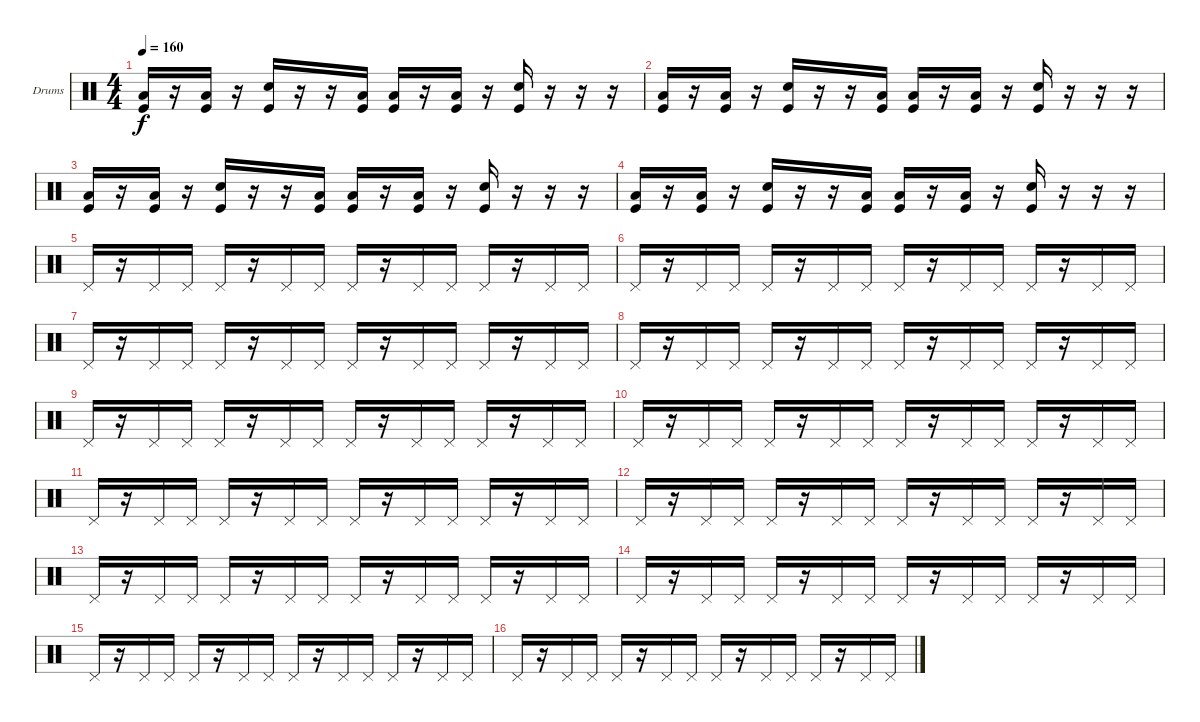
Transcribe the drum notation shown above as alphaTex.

\defaultSystemsLayout 4
\bracketExtendMode groupsimilarinstruments
\firstSystemTrackNameOrientation horizontal
\otherSystemsTrackNameOrientation horizontal
\track ("Drumkit" "Drums") {solo instrument percussion}
\staff {score}
\articulation defaults
\ts (4 4)
\tempo 160
\clef neutral
\scale
0.333333
\ks c
("Low Tom (hit)" "Kick (hit)").16{dy f} r.16 ("Low Tom (hit)" "Kick (hit)").16 r.16 ("Snare (hit) 2" "Kick (hit)").16 r.16 r.16 ("Low Tom (hit)" "Kick (hit)").16 ("Low Tom (hit)" "Kick (hit)").16 r.16 ("Low Tom (hit)" "Kick (hit)").16 r.16 ("Snare (hit) 2" "Kick (hit)").16 r.16 r.16 r.16 |
\scale
0.333333 ("Low Tom (hit)" "Kick (hit)").16 r.16 ("Low Tom (hit)" "Kick (hit)").16 r.16 ("Snare (hit) 2" "Kick (hit)").16 r.16 r.16 ("Low Tom (hit)" "Kick (hit)").16 ("Low Tom (hit)" "Kick (hit)").16 r.16 ("Low Tom (hit)" "Kick (hit)").16 r.16 ("Snare (hit) 2" "Kick (hit)").16 r.16 r.16 r.16 |
\scale
0.333333 ("Low Tom (hit)" "Kick (hit)").16 r.16 ("Low Tom (hit)" "Kick (hit)").16 r.16 ("Snare (hit) 2" "Kick (hit)").16 r.16 r.16 ("Low Tom (hit)" "Kick (hit)").16 ("Low Tom (hit)" "Kick (hit)").16 r.16 ("Low Tom (hit)" "Kick (hit)").16 r.16 ("Snare (hit) 2" "Kick (hit)").16 r.16 r.16 r.16 |
\scale
0.333333 ("Low Tom (hit)" "Kick (hit)").16 r.16 ("Low Tom (hit)" "Kick (hit)").16 r.16 ("Snare (hit) 2" "Kick (hit)").16 r.16 r.16 ("Low Tom (hit)" "Kick (hit)").16 ("Low Tom (hit)" "Kick (hit)").16 r.16 ("Low Tom (hit)" "Kick (hit)").16 r.16 ("Snare (hit) 2" "Kick (hit)").16 r.16 r.16 r.16 |
\scale
0.333333 "Pedal Hi-Hat (hit)".16 r.16 "Pedal Hi-Hat (hit)".16 "Pedal Hi-Hat (hit)".16 "Pedal Hi-Hat (hit)".16 r.16 "Pedal Hi-Hat (hit)".16 "Pedal Hi-Hat (hit)".16 "Pedal Hi-Hat (hit)".16 r.16 "Pedal Hi-Hat (hit)".16 "Pedal Hi-Hat (hit)".16 "Pedal Hi-Hat (hit)".16 r.16 "Pedal Hi-Hat (hit)".16 "Pedal Hi-Hat (hit)".16 |
\scale
0.333333 "Pedal Hi-Hat (hit)".16 r.16 "Pedal Hi-Hat (hit)".16 "Pedal Hi-Hat (hit)".16 "Pedal Hi-Hat (hit)".16 r.16 "Pedal Hi-Hat (hit)".16 "Pedal Hi-Hat (hit)".16 "Pedal Hi-Hat (hit)".16 r.16 "Pedal Hi-Hat (hit)".16 "Pedal Hi-Hat (hit)".16 "Pedal Hi-Hat (hit)".16 r.16 "Pedal Hi-Hat (hit)".16 "Pedal Hi-Hat (hit)".16 |
\scale
0.333333 "Pedal Hi-Hat (hit)".16 r.16 "Pedal Hi-Hat (hit)".16 "Pedal Hi-Hat (hit)".16 "Pedal Hi-Hat (hit)".16 r.16 "Pedal Hi-Hat (hit)".16 "Pedal Hi-Hat (hit)".16 "Pedal Hi-Hat (hit)".16 r.16 "Pedal Hi-Hat (hit)".16 "Pedal Hi-Hat (hit)".16 "Pedal Hi-Hat (hit)".16 r.16 "Pedal Hi-Hat (hit)".16 "Pedal Hi-Hat (hit)".16 |
\scale
0.333333 "Pedal Hi-Hat (hit)".16 r.16 "Pedal Hi-Hat (hit)".16 "Pedal Hi-Hat (hit)".16 "Pedal Hi-Hat (hit)".16 r.16 "Pedal Hi-Hat (hit)".16 "Pedal Hi-Hat (hit)".16 "Pedal Hi-Hat (hit)".16 r.16 "Pedal Hi-Hat (hit)".16 "Pedal Hi-Hat (hit)".16 "Pedal Hi-Hat (hit)".16 r.16 "Pedal Hi-Hat (hit)".16 "Pedal Hi-Hat (hit)".16 |
"Pedal Hi-Hat (hit)".16 r.16 "Pedal Hi-Hat (hit)".16 "Pedal Hi-Hat (hit)".16 "Pedal Hi-Hat (hit)".16 r.16 "Pedal Hi-Hat (hit)".16 "Pedal Hi-Hat (hit)".16 "Pedal Hi-Hat (hit)".16 r.16 "Pedal Hi-Hat (hit)".16 "Pedal Hi-Hat (hit)".16 "Pedal Hi-Hat (hit)".16 r.16 "Pedal Hi-Hat (hit)".16 "Pedal Hi-Hat (hit)".16 |
"Pedal Hi-Hat (hit)".16 r.16 "Pedal Hi-Hat (hit)".16 "Pedal Hi-Hat (hit)".16 "Pedal Hi-Hat (hit)".16 r.16 "Pedal Hi-Hat (hit)".16 "Pedal Hi-Hat (hit)".16 "Pedal Hi-Hat (hit)".16 r.16 "Pedal Hi-Hat (hit)".16 "Pedal Hi-Hat (hit)".16 "Pedal Hi-Hat (hit)".16 r.16 "Pedal Hi-Hat (hit)".16 "Pedal Hi-Hat (hit)".16 |
"Pedal Hi-Hat (hit)".16 r.16 "Pedal Hi-Hat (hit)".16 "Pedal Hi-Hat (hit)".16 "Pedal Hi-Hat (hit)".16 r.16 "Pedal Hi-Hat (hit)".16 "Pedal Hi-Hat (hit)".16 "Pedal Hi-Hat (hit)".16 r.16 "Pedal Hi-Hat (hit)".16 "Pedal Hi-Hat (hit)".16 "Pedal Hi-Hat (hit)".16 r.16 "Pedal Hi-Hat (hit)".16 "Pedal Hi-Hat (hit)".16 |
"Pedal Hi-Hat (hit)".16 r.16 "Pedal Hi-Hat (hit)".16 "Pedal Hi-Hat (hit)".16 "Pedal Hi-Hat (hit)".16 r.16 "Pedal Hi-Hat (hit)".16 "Pedal Hi-Hat (hit)".16 "Pedal Hi-Hat (hit)".16 r.16 "Pedal Hi-Hat (hit)".16 "Pedal Hi-Hat (hit)".16 "Pedal Hi-Hat (hit)".16 r.16 "Pedal Hi-Hat (hit)".16 "Pedal Hi-Hat (hit)".16 |
"Pedal Hi-Hat (hit)".16 r.16 "Pedal Hi-Hat (hit)".16 "Pedal Hi-Hat (hit)".16 "Pedal Hi-Hat (hit)".16 r.16 "Pedal Hi-Hat (hit)".16 "Pedal Hi-Hat (hit)".16 "Pedal Hi-Hat (hit)".16 r.16 "Pedal Hi-Hat (hit)".16 "Pedal Hi-Hat (hit)".16 "Pedal Hi-Hat (hit)".16 r.16 "Pedal Hi-Hat (hit)".16 "Pedal Hi-Hat (hit)".16 |
"Pedal Hi-Hat (hit)".16 r.16 "Pedal Hi-Hat (hit)".16 "Pedal Hi-Hat (hit)".16 "Pedal Hi-Hat (hit)".16 r.16 "Pedal Hi-Hat (hit)".16 "Pedal Hi-Hat (hit)".16 "Pedal Hi-Hat (hit)".16 r.16 "Pedal Hi-Hat (hit)".16 "Pedal Hi-Hat (hit)".16 "Pedal Hi-Hat (hit)".16 r.16 "Pedal Hi-Hat (hit)".16 "Pedal Hi-Hat (hit)".16 |
"Pedal Hi-Hat (hit)".16 r.16 "Pedal Hi-Hat (hit)".16 "Pedal Hi-Hat (hit)".16 "Pedal Hi-Hat (hit)".16 r.16 "Pedal Hi-Hat (hit)".16 "Pedal Hi-Hat (hit)".16 "Pedal Hi-Hat (hit)".16 r.16 "Pedal Hi-Hat (hit)".16 "Pedal Hi-Hat (hit)".16 "Pedal Hi-Hat (hit)".16 r.16 "Pedal Hi-Hat (hit)".16 "Pedal Hi-Hat (hit)".16 |
"Pedal Hi-Hat (hit)".16 r.16 "Pedal Hi-Hat (hit)".16 "Pedal Hi-Hat (hit)".16 "Pedal Hi-Hat (hit)".16 r.16 "Pedal Hi-Hat (hit)".16 "Pedal Hi-Hat (hit)".16 "Pedal Hi-Hat (hit)".16 r.16 "Pedal Hi-Hat (hit)".16 "Pedal Hi-Hat (hit)".16 "Pedal Hi-Hat (hit)".16 r.16 "Pedal Hi-Hat (hit)".16 "Pedal Hi-Hat (hit)".16
